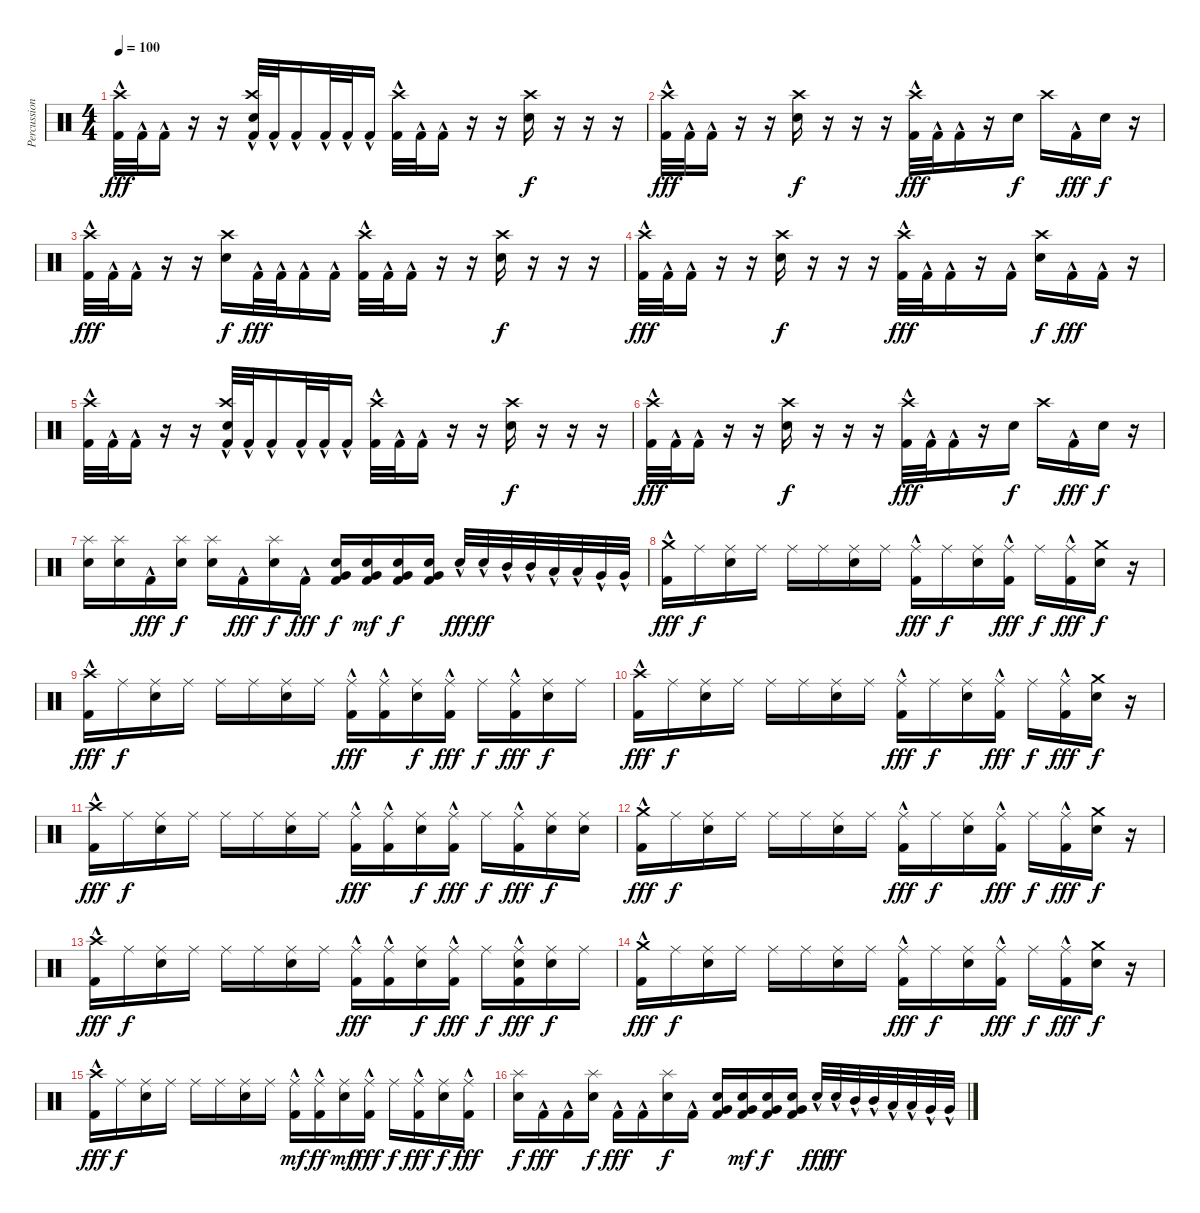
\track ("Percussion" "Percussion") {instrument percussion}
\staff {score}
\articulation defaults
\ts (4 4)
\tempo 100
\clef neutral
\ks c
("Kick (hit) 2"{hac} "Crash high (hit)").32{dy fff} "Kick (hit) 2"{hac}.32 "Kick (hit) 2"{hac}.16 r.16 r.16 ("Kick (hit) 2"{hac} "Electric Snare (hit)" "Crash high (hit)").32 "Kick (hit) 2"{hac}.32 "Kick (hit) 2"{hac}.16 "Kick (hit) 2"{hac}.32 "Kick (hit) 2"{hac}.32 "Kick (hit) 2"{hac}.16 ("Kick (hit) 2"{hac} "Crash high (hit)").32 "Kick (hit) 2"{hac}.32 "Kick (hit) 2"{hac}.16 r.16 r.16 ("Electric Snare (hit)" "Crash high (hit)").16{dy f} r.16 r.16 r.16 |
("Kick (hit) 2"{hac} "Crash high (hit)").32{dy fff} "Kick (hit) 2"{hac}.32 "Kick (hit) 2"{hac}.16 r.16 r.16 ("Electric Snare (hit)" "Crash high (hit)").16{dy f} r.16 r.16 r.16 ("Kick (hit) 2"{hac} "Crash high (hit)").32{dy fff} "Kick (hit) 2"{hac}.32 "Kick (hit) 2"{hac}.16 r.16 "Electric Snare (hit)".16{dy f} "Crash high (hit)".16 "Kick (hit) 2"{hac}.16{dy fff} "Electric Snare (hit)".16{dy f} r.16 |
("Kick (hit) 2"{hac} "Crash high (hit)").32{dy fff} "Kick (hit) 2"{hac}.32 "Kick (hit) 2"{hac}.16 r.16 r.16 ("Electric Snare (hit)" "Crash high (hit)").16{dy f} "Kick (hit) 2"{hac}.32{dy fff} "Kick (hit) 2"{hac}.32 "Kick (hit) 2"{hac}.16 "Kick (hit) 2"{hac}.16 ("Kick (hit) 2"{hac} "Crash high (hit)").32 "Kick (hit) 2"{hac}.32 "Kick (hit) 2"{hac}.16 r.16 r.16 ("Electric Snare (hit)" "Crash high (hit)").16{dy f} r.16 r.16 r.16 |
("Kick (hit) 2"{hac} "Crash high (hit)").32{dy fff} "Kick (hit) 2"{hac}.32 "Kick (hit) 2"{hac}.16 r.16 r.16 ("Electric Snare (hit)" "Crash high (hit)").16{dy f} r.16 r.16 r.16 ("Kick (hit) 2"{hac} "Crash high (hit)").32{dy fff} "Kick (hit) 2"{hac}.32 "Kick (hit) 2"{hac}.16 r.16 "Kick (hit) 2"{hac}.16 ("Electric Snare (hit)" "Crash high (hit)").16{dy f} "Kick (hit) 2"{hac}.16{dy fff} "Kick (hit) 2"{hac}.16 r.16 |
("Kick (hit) 2"{hac} "Crash high (hit)").32 "Kick (hit) 2"{hac}.32 "Kick (hit) 2"{hac}.16 r.16 r.16 ("Kick (hit) 2"{hac} "Electric Snare (hit)" "Crash high (hit)").32 "Kick (hit) 2"{hac}.32 "Kick (hit) 2"{hac}.16 "Kick (hit) 2"{hac}.32 "Kick (hit) 2"{hac}.32 "Kick (hit) 2"{hac}.16 ("Kick (hit) 2"{hac} "Crash high (hit)").32 "Kick (hit) 2"{hac}.32 "Kick (hit) 2"{hac}.16 r.16 r.16 ("Electric Snare (hit)" "Crash high (hit)").16{dy f} r.16 r.16 r.16 |
("Kick (hit) 2"{hac} "Crash high (hit)").32{dy fff} "Kick (hit) 2"{hac}.32 "Kick (hit) 2"{hac}.16 r.16 r.16 ("Electric Snare (hit)" "Crash high (hit)").16{dy f} r.16 r.16 r.16 ("Kick (hit) 2"{hac} "Crash high (hit)").32{dy fff} "Kick (hit) 2"{hac}.32 "Kick (hit) 2"{hac}.16 r.16 "Electric Snare (hit)".16{dy f} "Crash high (hit)".16 "Kick (hit) 2"{hac}.16{dy fff} "Electric Snare (hit)".16{dy f} r.16 |
("Electric Snare (hit)" "Splash (hit)").16 ("Electric Snare (hit)" "Splash (hit)").16 "Kick (hit) 2"{hac}.16{dy fff} ("Electric Snare (hit)" "Splash (hit)").16{dy f} ("Electric Snare (hit)" "Splash (hit)").16 "Kick (hit) 2"{hac}.16{dy fff} ("Electric Snare (hit)" "Splash (hit)").16{dy f} "Kick (hit) 2"{hac}.16{dy fff} ("Kick (hit) 2" "Electric Snare (hit)" "Very Low Tom (hit)").16{dy f} ("Kick (hit) 2" "Electric Snare (hit)" "Very Low Tom (hit)").16{dy mf} ("Kick (hit) 2" "Electric Snare (hit)" "Very Low Tom (hit)").16{dy f} ("Kick (hit) 2" "Electric Snare (hit)" "Very Low Tom (hit)").16 "Electric Snare (hit)"{hac}.32{dy fff} "Electric Snare (hit)"{hac}.32{dy ff} "Mid Tom (hit)"{hac}.32 "Mid Tom (hit)"{hac}.32 "Low Tom (hit)"{hac}.32 "Low Tom (hit)"{hac}.32 "Very Low Tom (hit)"{hac}.32 "Very Low Tom (hit)"{hac}.32 |
("Kick (hit) 2"{hac} "Crash medium (hit)").16{dy fff} "Ride (middle)".16{dy f} ("Electric Snare (hit)" "Ride (middle)").16 "Ride (middle)".16 "Ride (middle)".16 "Ride (middle)".16 ("Electric Snare (hit)" "Ride (middle)").16 "Ride (middle)".16 ("Kick (hit) 2"{hac} "Ride (middle)").16{dy fff} "Ride (middle)".16{dy f} ("Electric Snare (hit)" "Ride (middle)").16 ("Kick (hit) 2"{hac} "Ride (middle)").16{dy fff} "Ride (middle)".16{dy f} ("Kick (hit) 2"{hac} "Ride (middle)").16{dy fff} ("Electric Snare (hit)" "Crash medium (hit)").16{dy f} r.16 |
("Kick (hit) 2"{hac} "Crash high (hit)").16{dy fff} "Ride (middle)".16{dy f} ("Electric Snare (hit)" "Ride (middle)").16 "Ride (middle)".16 "Ride (middle)".16 "Ride (middle)".16 ("Electric Snare (hit)" "Ride (middle)").16 "Ride (middle)".16 ("Kick (hit) 2"{hac} "Ride (middle)").16{dy fff} ("Kick (hit) 2"{hac} "Ride (middle)").16 ("Electric Snare (hit)" "Ride (middle)").16{dy f} ("Kick (hit) 2"{hac} "Ride (middle)").16{dy fff} "Ride (middle)".16{dy f} ("Kick (hit) 2"{hac} "Ride (middle)").16{dy fff} ("Electric Snare (hit)" "Ride (middle)").16{dy f} "Ride (middle)".16 |
("Kick (hit) 2"{hac} "Crash high (hit)").16{dy fff} "Ride (middle)".16{dy f} ("Electric Snare (hit)" "Ride (middle)").16 "Ride (middle)".16 "Ride (middle)".16 "Ride (middle)".16 ("Electric Snare (hit)" "Ride (middle)").16 "Ride (middle)".16 ("Kick (hit) 2"{hac} "Ride (middle)").16{dy fff} "Ride (middle)".16{dy f} ("Electric Snare (hit)" "Ride (middle)").16 ("Kick (hit) 2"{hac} "Ride (middle)").16{dy fff} "Ride (middle)".16{dy f} ("Kick (hit) 2"{hac} "Ride (middle)").16{dy fff} ("Electric Snare (hit)" "Crash medium (hit)").16{dy f} r.16 |
("Kick (hit) 2"{hac} "Crash high (hit)").16{dy fff} "Ride (middle)".16{dy f} ("Electric Snare (hit)" "Ride (middle)").16 "Ride (middle)".16 "Ride (middle)".16 "Ride (middle)".16 ("Electric Snare (hit)" "Ride (middle)").16 "Ride (middle)".16 ("Kick (hit) 2"{hac} "Ride (middle)").16{dy fff} ("Kick (hit) 2"{hac} "Ride (middle)").16 ("Electric Snare (hit)" "Ride (middle)").16{dy f} ("Kick (hit) 2"{hac} "Ride (middle)").16{dy fff} "Ride (middle)".16{dy f} ("Kick (hit) 2"{hac} "Ride (middle)").16{dy fff} ("Electric Snare (hit)" "Ride (middle)").16{dy f} ("Electric Snare (hit)" "Ride (middle)").16 |
("Kick (hit) 2"{hac} "Crash medium (hit)").16{dy fff} "Ride (middle)".16{dy f} ("Electric Snare (hit)" "Ride (middle)").16 "Ride (middle)".16 "Ride (middle)".16 "Ride (middle)".16 ("Electric Snare (hit)" "Ride (middle)").16 "Ride (middle)".16 ("Kick (hit) 2"{hac} "Ride (middle)").16{dy fff} "Ride (middle)".16{dy f} ("Electric Snare (hit)" "Ride (middle)").16 ("Kick (hit) 2"{hac} "Ride (middle)").16{dy fff} "Ride (middle)".16{dy f} ("Kick (hit) 2"{hac} "Ride (middle)").16{dy fff} ("Electric Snare (hit)" "Crash medium (hit)").16{dy f} r.16 |
("Kick (hit) 2"{hac} "Crash high (hit)").16{dy fff} "Ride (middle)".16{dy f} ("Electric Snare (hit)" "Ride (middle)").16 "Ride (middle)".16 "Ride (middle)".16 "Ride (middle)".16 ("Electric Snare (hit)" "Ride (middle)").16 "Ride (middle)".16 ("Kick (hit) 2"{hac} "Ride (middle)").16{dy fff} ("Kick (hit) 2"{hac} "Ride (middle)").16 ("Electric Snare (hit)" "Ride (middle)").16{dy f} ("Kick (hit) 2"{hac} "Ride (middle)").16{dy fff} "Ride (middle)".16{dy f} ("Electric Snare (hit)" "Kick (hit) 2"{hac} "Ride (middle)").16{dy fff} ("Electric Snare (hit)" "Ride (middle)").16{dy f} "Ride (middle)".16 |
("Kick (hit) 2"{hac} "Crash medium (hit)").16{dy fff} "Ride (middle)".16{dy f} ("Electric Snare (hit)" "Ride (middle)").16 "Ride (middle)".16 "Ride (middle)".16 "Ride (middle)".16 ("Electric Snare (hit)" "Ride (middle)").16 "Ride (middle)".16 ("Kick (hit) 2"{hac} "Ride (middle)").16{dy fff} "Ride (middle)".16{dy f} ("Electric Snare (hit)" "Ride (middle)").16 ("Kick (hit) 2"{hac} "Ride (middle)").16{dy fff} "Ride (middle)".16{dy f} ("Kick (hit) 2"{hac} "Ride (middle)").16{dy fff} ("Electric Snare (hit)" "Crash medium (hit)").16{dy f} r.16 |
("Kick (hit) 2"{hac} "Crash high (hit)").16{dy fff} "Ride (middle)".16{dy f} ("Electric Snare (hit)" "Ride (middle)").16 "Ride (middle)".16 "Ride (middle)".16 "Ride (middle)".16 ("Electric Snare (hit)" "Ride (middle)").16 "Ride (middle)".16 ("Kick (hit) 2"{hac} "Ride (middle)").16{dy mf} ("Kick (hit) 2"{hac} "Ride (middle)").16{dy ff} ("Electric Snare (hit)" "Ride (middle)").16{dy mf} ("Kick (hit) 2"{hac} "Ride (middle)").16{dy fff} "Ride (middle)".16{dy f} ("Kick (hit) 2"{hac} "Ride (middle)").16{dy fff} ("Electric Snare (hit)" "Ride (middle)").16{dy f} ("Kick (hit) 2"{hac} "Ride (middle)").16{dy fff} |
("Electric Snare (hit)" "Splash (hit)").16{dy f} "Kick (hit) 2"{hac}.16{dy fff} "Kick (hit) 2"{hac}.16 ("Electric Snare (hit)" "Splash (hit)").16{dy f} "Kick (hit) 2"{hac}.16{dy fff} "Kick (hit) 2"{hac}.16 ("Electric Snare (hit)" "Splash (hit)").16{dy f} "Kick (hit) 2"{hac}.16 ("Kick (hit) 2" "Electric Snare (hit)" "Very Low Tom (hit)").16 ("Kick (hit) 2" "Electric Snare (hit)" "Very Low Tom (hit)").16{dy mf} ("Kick (hit) 2" "Electric Snare (hit)" "Very Low Tom (hit)").16{dy f} ("Kick (hit) 2" "Electric Snare (hit)" "Very Low Tom (hit)").16 "Electric Snare (hit)"{hac}.32{dy fff} "Electric Snare (hit)"{hac}.32{dy ff} "Mid Tom (hit)"{hac}.32 "Mid Tom (hit)"{hac}.32 "Low Tom (hit)"{hac}.32 "Low Tom (hit)"{hac}.32 "Very Low Tom (hit)"{hac}.32 "Very Low Tom (hit)"{hac}.32
